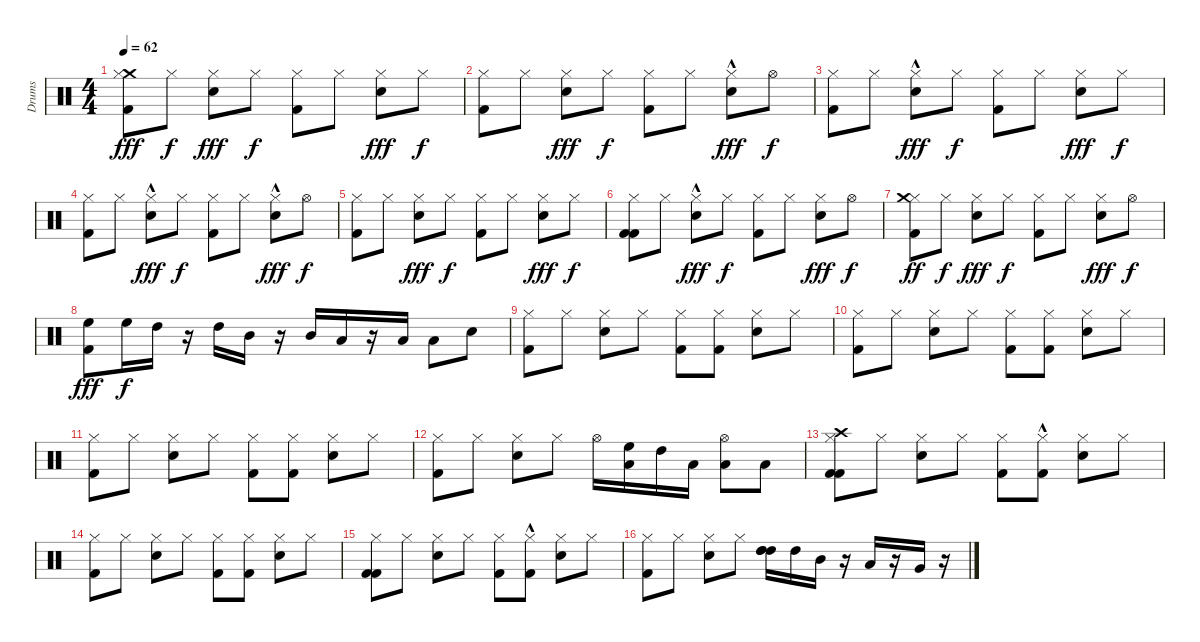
\track ("Drums" "Drums") {instrument percussion}
\staff {score}
\articulation defaults
\ts (4 4)
\tempo 62
\clef neutral
\ks c
("Crash medium (hit)" "Kick (hit) 2" "Hi-Hat (closed)").8{dy fff} "Hi-Hat (closed)".8{dy f} ("Hi-Hat (closed)" "Electric Snare (hit)").8{dy fff} "Hi-Hat (closed)".8{dy f} ("Kick (hit) 2" "Hi-Hat (closed)").8 "Hi-Hat (closed)".8 ("Hi-Hat (closed)" "Electric Snare (hit)").8{dy fff} "Hi-Hat (closed)".8{dy f} |
("Kick (hit) 2" "Hi-Hat (closed)").8 "Hi-Hat (closed)".8 ("Hi-Hat (closed)" "Electric Snare (hit)").8{dy fff} "Hi-Hat (closed)".8{dy f} ("Kick (hit) 2" "Hi-Hat (closed)").8 "Hi-Hat (closed)".8 ("Hi-Hat (closed)" "Electric Snare (hit)"{hac}).8{dy fff} "Hi-Hat (open)".8{dy f} |
("Kick (hit) 2" "Hi-Hat (closed)").8 "Hi-Hat (closed)".8 ("Electric Snare (hit)"{hac} "Hi-Hat (closed)").8{dy fff} "Hi-Hat (closed)".8{dy f} ("Kick (hit) 2" "Hi-Hat (closed)").8 "Hi-Hat (closed)".8 ("Hi-Hat (closed)" "Electric Snare (hit)").8{dy fff} "Hi-Hat (closed)".8{dy f} |
("Kick (hit) 2" "Hi-Hat (closed)").8 "Hi-Hat (closed)".8 ("Hi-Hat (closed)" "Electric Snare (hit)"{hac}).8{dy fff} "Hi-Hat (closed)".8{dy f} ("Kick (hit) 2" "Hi-Hat (closed)").8 "Hi-Hat (closed)".8 ("Hi-Hat (closed)" "Electric Snare (hit)"{hac}).8{dy fff} "Hi-Hat (open)".8{dy f} |
("Kick (hit) 2" "Hi-Hat (closed)").8 "Hi-Hat (closed)".8 ("Hi-Hat (closed)" "Electric Snare (hit)").8{dy fff} "Hi-Hat (closed)".8{dy f} ("Kick (hit) 2" "Hi-Hat (closed)").8 "Hi-Hat (closed)".8 ("Hi-Hat (closed)" "Electric Snare (hit)").8{dy fff} "Hi-Hat (closed)".8{dy f} |
("Kick (hit) 2" "Hi-Hat (closed)" "Kick (hit) 2").8 "Hi-Hat (closed)".8 ("Hi-Hat (closed)" "Electric Snare (hit)"{hac}).8{dy fff} "Hi-Hat (closed)".8{dy f} ("Kick (hit) 2" "Hi-Hat (closed)").8 "Hi-Hat (closed)".8 ("Hi-Hat (closed)" "Electric Snare (hit)").8{dy fff} "Hi-Hat (open)".8{dy f} |
("Kick (hit) 2" "Hi-Hat (closed)" "Crash medium (hit)").8{dy ff} "Hi-Hat (closed)".8{dy f} ("Hi-Hat (closed)" "Electric Snare (hit)").8{dy fff} "Hi-Hat (closed)".8{dy f} ("Kick (hit) 2" "Hi-Hat (closed)").8 "Hi-Hat (closed)".8 ("Hi-Hat (closed)" "Electric Snare (hit)").8{dy fff} "Hi-Hat (open)".8{dy f} |
("High Floor Tom (hit)" "Kick (hit) 2").8{dy fff} "High Floor Tom (hit)".16{dy f} "High Tom (hit)".16 r.16 "High Tom (hit)".16 "Mid Tom (hit)".16 r.16 "Mid Tom (hit)".16 "Low Tom (hit)".16 r.16 "Low Floor Tom (hit)".16 "Low Floor Tom (hit)".8 "Snare (hit) 2".8 |
("Kick (hit) 2" "Hi-Hat (closed)").8 "Hi-Hat (closed)".8 ("Snare (hit) 2" "Hi-Hat (closed)").8 "Hi-Hat (closed)".8 ("Kick (hit) 2" "Hi-Hat (closed)").8 ("Kick (hit) 2" "Hi-Hat (closed)").8 ("Snare (hit) 2" "Hi-Hat (closed)").8 "Hi-Hat (closed)".8 |
("Kick (hit) 2" "Hi-Hat (closed)").8 "Hi-Hat (closed)".8 ("Snare (hit) 2" "Hi-Hat (closed)").8 "Hi-Hat (closed)".8 ("Kick (hit) 2" "Hi-Hat (closed)").8 ("Kick (hit) 2" "Hi-Hat (closed)").8 ("Snare (hit) 2" "Hi-Hat (closed)").8 "Hi-Hat (closed)".8 |
("Kick (hit) 2" "Hi-Hat (closed)").8 "Hi-Hat (closed)".8 ("Snare (hit) 2" "Hi-Hat (closed)").8 "Hi-Hat (closed)".8 ("Kick (hit) 2" "Hi-Hat (closed)").8 ("Kick (hit) 2" "Hi-Hat (closed)").8 ("Snare (hit) 2" "Hi-Hat (closed)").8 "Hi-Hat (closed)".8 |
("Kick (hit) 2" "Hi-Hat (closed)").8 "Hi-Hat (closed)".8 ("Snare (hit) 2" "Hi-Hat (closed)").8 "Hi-Hat (closed)".8 "Hi-Hat (open)".16 ("Low Tom (hit)" "High Floor Tom (hit)").16 "High Tom (hit)".16 "Low Tom (hit)".16 ("Hi-Hat (open)" "Low Floor Tom (hit)").8 "Low Floor Tom (hit)".8 |
("Kick (hit) 2" "Hi-Hat (closed)" "Crash high (hit)" "Kick (hit) 2").8 "Hi-Hat (closed)".8 ("Snare (hit) 2" "Hi-Hat (closed)").8 "Hi-Hat (closed)".8 ("Kick (hit) 2" "Hi-Hat (closed)").8 ("Kick (hit) 2"{hac} "Hi-Hat (closed)").8 ("Snare (hit) 2" "Hi-Hat (closed)").8 "Hi-Hat (closed)".8 |
("Kick (hit) 2" "Hi-Hat (closed)").8 "Hi-Hat (closed)".8 ("Snare (hit) 2" "Hi-Hat (closed)").8 "Hi-Hat (closed)".8 ("Kick (hit) 2" "Hi-Hat (closed)").8 ("Kick (hit) 2" "Hi-Hat (closed)").8 ("Snare (hit) 2" "Hi-Hat (closed)").8 "Hi-Hat (closed)".8 |
("Kick (hit) 2" "Hi-Hat (closed)" "Kick (hit) 2").8 "Hi-Hat (closed)".8 ("Snare (hit) 2" "Hi-Hat (closed)").8 "Hi-Hat (closed)".8 ("Kick (hit) 2" "Hi-Hat (closed)").8 ("Kick (hit) 2"{hac} "Hi-Hat (closed)").8 ("Snare (hit) 2" "Hi-Hat (closed)").8 "Hi-Hat (closed)".8 |
("Kick (hit) 2" "Hi-Hat (closed)").8 "Hi-Hat (closed)".8 ("Snare (hit) 2" "Hi-Hat (closed)").8 "Hi-Hat (closed)".8 ("High Tom (hit)" "High Tom (hit)" "High Tom (hit)").16 "High Tom (hit)".16 "Mid Tom (hit)".16 r.16 "Low Tom (hit)".16 r.16 "Very Low Tom (hit)".16 r.16
